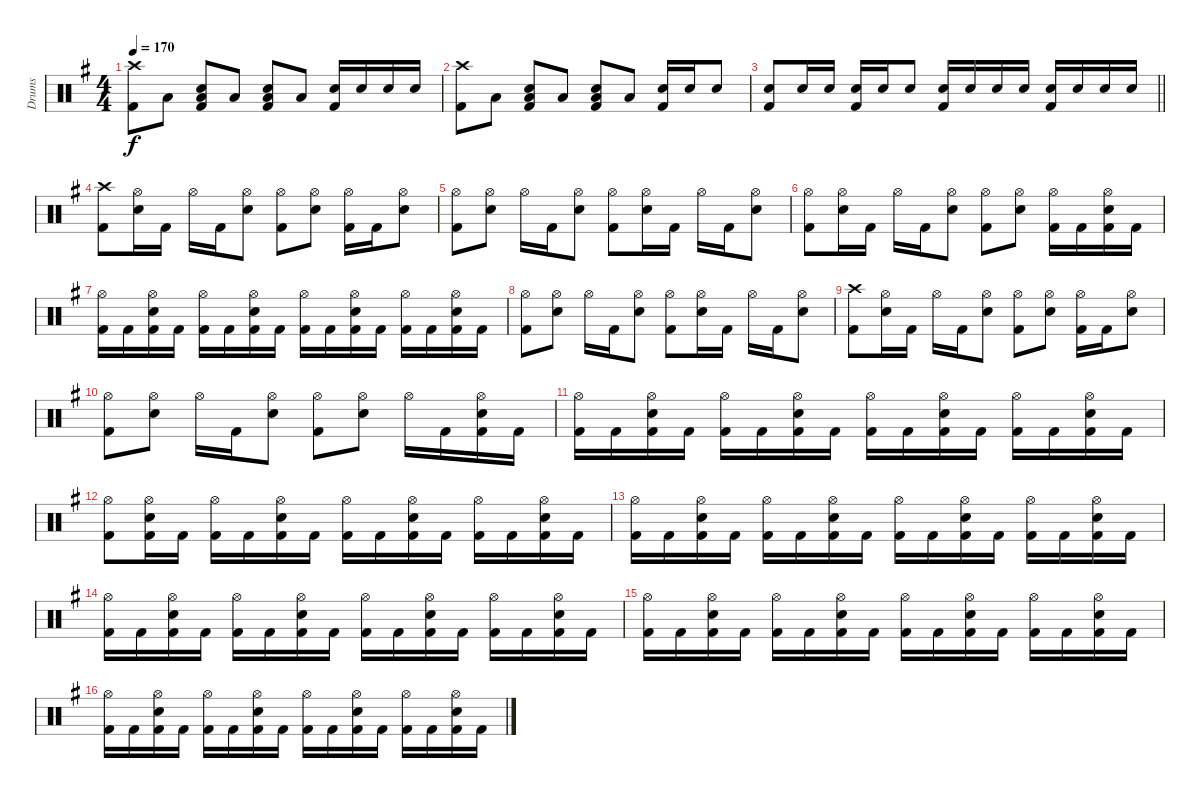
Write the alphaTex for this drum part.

\track ("Drums" "Drums") {instrument percussion}
\staff {score}
\articulation defaults
\ts (4 4)
\tempo 170
\clef neutral
\ks g
("Crash high (hit)" "Kick (hit) 2").8{dy f} "Low Floor Tom (hit)".8 ("Snare (hit) 2" "Low Floor Tom (hit)" "Kick (hit) 2").8 "Low Floor Tom (hit)".8 ("Snare (hit) 2" "Low Floor Tom (hit)" "Kick (hit) 2").8 "Low Floor Tom (hit)".8 ("Snare (hit) 2" "Kick (hit) 2").16 "Snare (hit) 2".16 "Snare (hit) 2".16 "Snare (hit) 2".16 |
("Crash high (hit)" "Kick (hit) 2").8 "Low Floor Tom (hit)".8 ("Snare (hit) 2" "Low Floor Tom (hit)" "Kick (hit) 2").8 "Low Floor Tom (hit)".8 ("Snare (hit) 2" "Low Floor Tom (hit)" "Kick (hit) 2").8 "Low Floor Tom (hit)".8 ("Snare (hit) 2" "Kick (hit) 2").16 "Snare (hit) 2".16 "Snare (hit) 2".8 |
\barLineRight lightlight
("Snare (hit) 2" "Kick (hit) 2").8 "Snare (hit) 2".16 "Snare (hit) 2".16 ("Snare (hit) 2" "Kick (hit) 2").16 "Snare (hit) 2".16 "Snare (hit) 2".8 ("Snare (hit) 2" "Kick (hit) 2").16 "Snare (hit) 2".16 "Snare (hit) 2".16 "Snare (hit) 2".16 ("Snare (hit) 2" "Kick (hit) 2").16 "Snare (hit) 2".16 "Snare (hit) 2".16 "Snare (hit) 2".16 |
("Crash high (hit)" "Kick (hit) 2").8 ("Hi-Hat (open)" "Snare (hit) 2").16 "Kick (hit) 2".16 "Hi-Hat (open)".16 "Kick (hit) 2".16 ("Hi-Hat (open)" "Snare (hit) 2").8 ("Hi-Hat (open)" "Kick (hit) 2").8 ("Hi-Hat (open)" "Snare (hit) 2").8 ("Hi-Hat (open)" "Kick (hit) 2").16 "Kick (hit) 2".16 ("Hi-Hat (open)" "Snare (hit) 2").8 |
("Hi-Hat (open)" "Kick (hit) 2").8 ("Hi-Hat (open)" "Snare (hit) 2").8 "Hi-Hat (open)".16 "Kick (hit) 2".16 ("Hi-Hat (open)" "Snare (hit) 2").8 ("Hi-Hat (open)" "Kick (hit) 2").8 ("Hi-Hat (open)" "Snare (hit) 2").16 "Kick (hit) 2".16 "Hi-Hat (open)".16 "Kick (hit) 2".16 ("Hi-Hat (open)" "Snare (hit) 2").8 |
("Hi-Hat (open)" "Kick (hit) 2").8 ("Hi-Hat (open)" "Snare (hit) 2").16 "Kick (hit) 2".16 "Hi-Hat (open)".16 "Kick (hit) 2".16 ("Hi-Hat (open)" "Snare (hit) 2").8 ("Hi-Hat (open)" "Kick (hit) 2").8 ("Hi-Hat (open)" "Snare (hit) 2").8 ("Hi-Hat (open)" "Kick (hit) 2").16 "Kick (hit) 2".16 ("Hi-Hat (open)" "Snare (hit) 2" "Kick (hit) 2").16 "Kick (hit) 2".16 |
("Hi-Hat (open)" "Kick (hit) 2").16 "Kick (hit) 2".16 ("Hi-Hat (open)" "Snare (hit) 2" "Kick (hit) 2").16 "Kick (hit) 2".16 ("Hi-Hat (open)" "Kick (hit) 2").16 "Kick (hit) 2".16 ("Hi-Hat (open)" "Snare (hit) 2" "Kick (hit) 2").16 "Kick (hit) 2".16 ("Hi-Hat (open)" "Kick (hit) 2").16 "Kick (hit) 2".16 ("Hi-Hat (open)" "Snare (hit) 2" "Kick (hit) 2").16 "Kick (hit) 2".16 ("Hi-Hat (open)" "Kick (hit) 2").16 "Kick (hit) 2".16 ("Hi-Hat (open)" "Snare (hit) 2" "Kick (hit) 2").16 "Kick (hit) 2".16 |
("Hi-Hat (open)" "Kick (hit) 2").8 ("Hi-Hat (open)" "Snare (hit) 2").8 "Hi-Hat (open)".16 "Kick (hit) 2".16 ("Hi-Hat (open)" "Snare (hit) 2").8 ("Hi-Hat (open)" "Kick (hit) 2").8 ("Hi-Hat (open)" "Snare (hit) 2").16 "Kick (hit) 2".16 "Hi-Hat (open)".16 "Kick (hit) 2".16 ("Hi-Hat (open)" "Snare (hit) 2").8 |
("Crash high (hit)" "Kick (hit) 2").8 ("Hi-Hat (open)" "Snare (hit) 2").16 "Kick (hit) 2".16 "Hi-Hat (open)".16 "Kick (hit) 2".16 ("Hi-Hat (open)" "Snare (hit) 2").8 ("Hi-Hat (open)" "Kick (hit) 2").8 ("Hi-Hat (open)" "Snare (hit) 2").8 ("Hi-Hat (open)" "Kick (hit) 2").16 "Kick (hit) 2".16 ("Hi-Hat (open)" "Snare (hit) 2").8 |
("Hi-Hat (open)" "Kick (hit) 2").8 ("Hi-Hat (open)" "Snare (hit) 2").8 "Hi-Hat (open)".16 "Kick (hit) 2".16 ("Hi-Hat (open)" "Snare (hit) 2").8 ("Hi-Hat (open)" "Kick (hit) 2").8 ("Hi-Hat (open)" "Snare (hit) 2").8 "Hi-Hat (open)".16 "Kick (hit) 2".16 ("Hi-Hat (open)" "Snare (hit) 2" "Kick (hit) 2").16 "Kick (hit) 2".16 |
("Hi-Hat (open)" "Kick (hit) 2").16 "Kick (hit) 2".16 ("Hi-Hat (open)" "Snare (hit) 2" "Kick (hit) 2").16 "Kick (hit) 2".16 ("Hi-Hat (open)" "Kick (hit) 2").16 "Kick (hit) 2".16 ("Hi-Hat (open)" "Snare (hit) 2" "Kick (hit) 2").16 "Kick (hit) 2".16 ("Hi-Hat (open)" "Kick (hit) 2").16 "Kick (hit) 2".16 ("Hi-Hat (open)" "Snare (hit) 2" "Kick (hit) 2").16 "Kick (hit) 2".16 ("Hi-Hat (open)" "Kick (hit) 2").16 "Kick (hit) 2".16 ("Hi-Hat (open)" "Snare (hit) 2" "Kick (hit) 2").16 "Kick (hit) 2".16 |
("Hi-Hat (open)" "Kick (hit) 2").8 ("Hi-Hat (open)" "Snare (hit) 2" "Kick (hit) 2").16 "Kick (hit) 2".16 ("Hi-Hat (open)" "Kick (hit) 2").16 "Kick (hit) 2".16 ("Hi-Hat (open)" "Snare (hit) 2" "Kick (hit) 2").16 "Kick (hit) 2".16 ("Hi-Hat (open)" "Kick (hit) 2").16 "Kick (hit) 2".16 ("Hi-Hat (open)" "Snare (hit) 2" "Kick (hit) 2").16 "Kick (hit) 2".16 ("Hi-Hat (open)" "Kick (hit) 2").16 "Kick (hit) 2".16 ("Hi-Hat (open)" "Snare (hit) 2" "Kick (hit) 2").16 "Kick (hit) 2".16 |
("Hi-Hat (open)" "Kick (hit) 2").16 "Kick (hit) 2".16 ("Hi-Hat (open)" "Snare (hit) 2" "Kick (hit) 2").16 "Kick (hit) 2".16 ("Hi-Hat (open)" "Kick (hit) 2").16 "Kick (hit) 2".16 ("Hi-Hat (open)" "Snare (hit) 2" "Kick (hit) 2").16 "Kick (hit) 2".16 ("Hi-Hat (open)" "Kick (hit) 2").16 "Kick (hit) 2".16 ("Hi-Hat (open)" "Snare (hit) 2" "Kick (hit) 2").16 "Kick (hit) 2".16 ("Hi-Hat (open)" "Kick (hit) 2").16 "Kick (hit) 2".16 ("Hi-Hat (open)" "Snare (hit) 2" "Kick (hit) 2").16 "Kick (hit) 2".16 |
("Hi-Hat (open)" "Kick (hit) 2").16 "Kick (hit) 2".16 ("Hi-Hat (open)" "Snare (hit) 2" "Kick (hit) 2").16 "Kick (hit) 2".16 ("Hi-Hat (open)" "Kick (hit) 2").16 "Kick (hit) 2".16 ("Hi-Hat (open)" "Snare (hit) 2" "Kick (hit) 2").16 "Kick (hit) 2".16 ("Hi-Hat (open)" "Kick (hit) 2").16 "Kick (hit) 2".16 ("Hi-Hat (open)" "Snare (hit) 2" "Kick (hit) 2").16 "Kick (hit) 2".16 ("Hi-Hat (open)" "Kick (hit) 2").16 "Kick (hit) 2".16 ("Hi-Hat (open)" "Snare (hit) 2" "Kick (hit) 2").16 "Kick (hit) 2".16 |
("Hi-Hat (open)" "Kick (hit) 2").16 "Kick (hit) 2".16 ("Hi-Hat (open)" "Snare (hit) 2" "Kick (hit) 2").16 "Kick (hit) 2".16 ("Hi-Hat (open)" "Kick (hit) 2").16 "Kick (hit) 2".16 ("Hi-Hat (open)" "Snare (hit) 2" "Kick (hit) 2").16 "Kick (hit) 2".16 ("Hi-Hat (open)" "Kick (hit) 2").16 "Kick (hit) 2".16 ("Hi-Hat (open)" "Snare (hit) 2" "Kick (hit) 2").16 "Kick (hit) 2".16 ("Hi-Hat (open)" "Kick (hit) 2").16 "Kick (hit) 2".16 ("Hi-Hat (open)" "Snare (hit) 2" "Kick (hit) 2").16 "Kick (hit) 2".16 |
("Hi-Hat (open)" "Kick (hit) 2").16 "Kick (hit) 2".16 ("Hi-Hat (open)" "Snare (hit) 2" "Kick (hit) 2").16 "Kick (hit) 2".16 ("Hi-Hat (open)" "Kick (hit) 2").16 "Kick (hit) 2".16 ("Hi-Hat (open)" "Snare (hit) 2" "Kick (hit) 2").16 "Kick (hit) 2".16 ("Hi-Hat (open)" "Kick (hit) 2").16 "Kick (hit) 2".16 ("Hi-Hat (open)" "Snare (hit) 2" "Kick (hit) 2").16 "Kick (hit) 2".16 ("Hi-Hat (open)" "Kick (hit) 2").16 "Kick (hit) 2".16 ("Hi-Hat (open)" "Snare (hit) 2" "Kick (hit) 2").16 "Kick (hit) 2".16
